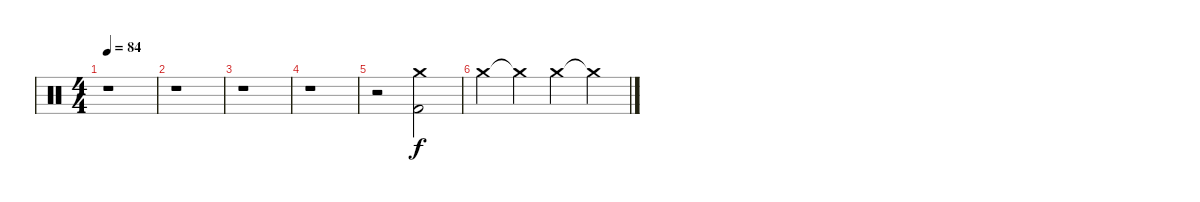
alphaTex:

\track "" {instrument percussion}
\staff {score}
\articulation defaults
\ts (4 4)
\tempo 84
\clef neutral
\ks c
r.1{dy f} |
r.1 |
r.1 |
r.1 |
r.2 ("Crash medium (hit)" "Kick (hit) 2").2 |
"Crash medium (hit)".4 "Crash medium (hit)"{t}.4 "Crash medium (hit)".4 "Crash medium (hit)"{t}.4
